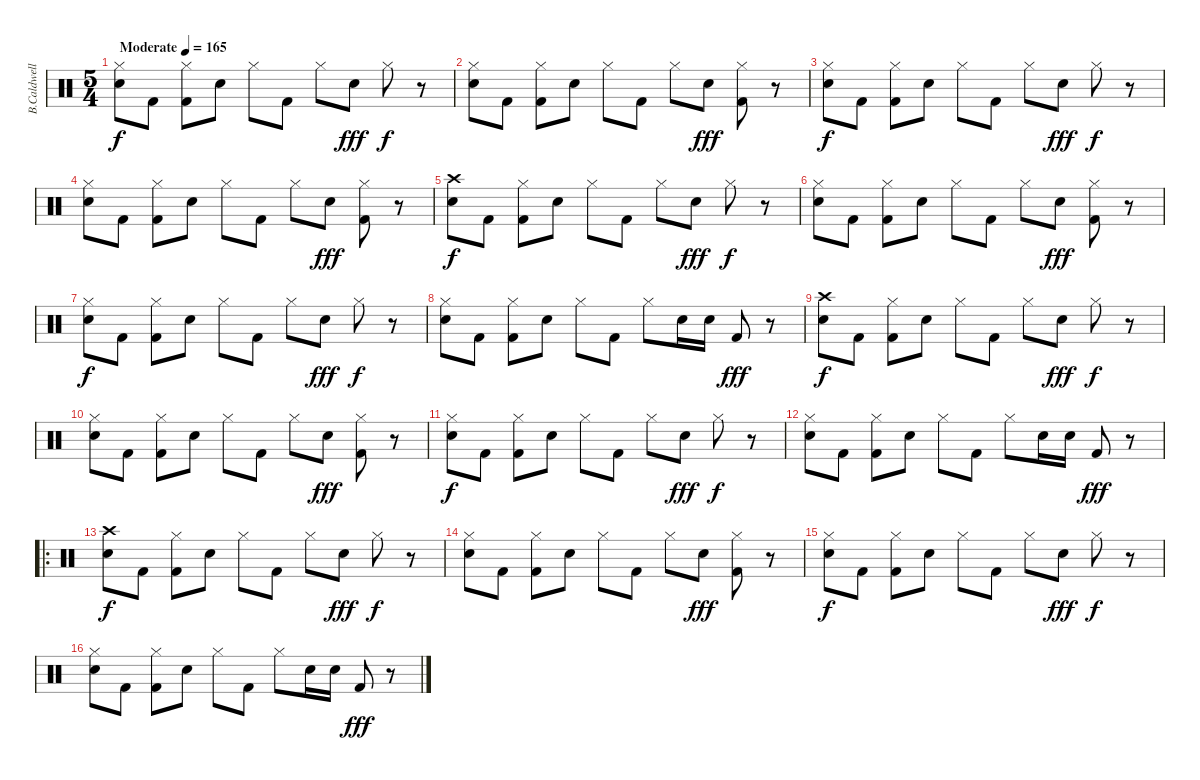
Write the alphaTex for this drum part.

\track ("B.Caldwell" "B.Caldwell") {instrument percussion}
\staff {score}
\articulation defaults
\ts (5 4)
\tempo (165 "Moderate")
\clef neutral
\ks c
("Hi-Hat (closed)" "Snare (hit) 2").8{dy f} "Kick (hit) 2".8 ("Hi-Hat (closed)" "Kick (hit) 2").8 "Snare (hit) 2".8 "Hi-Hat (closed)".8 "Kick (hit) 2".8 "Hi-Hat (closed)".8 "Snare (hit) 2".8{dy fff} "Hi-Hat (closed)".8{dy f} r.8 |
("Hi-Hat (closed)" "Snare (hit) 2").8 "Kick (hit) 2".8 ("Hi-Hat (closed)" "Kick (hit) 2").8 "Snare (hit) 2".8 "Hi-Hat (closed)".8 "Kick (hit) 2".8 "Hi-Hat (closed)".8 "Snare (hit) 2".8{dy fff} ("Hi-Hat (closed)" "Kick (hit) 2").8 r.8 |
("Hi-Hat (closed)" "Snare (hit) 2").8{dy f} "Kick (hit) 2".8 ("Hi-Hat (closed)" "Kick (hit) 2").8 "Snare (hit) 2".8 "Hi-Hat (closed)".8 "Kick (hit) 2".8 "Hi-Hat (closed)".8 "Snare (hit) 2".8{dy fff} "Hi-Hat (closed)".8{dy f} r.8 |
("Hi-Hat (closed)" "Snare (hit) 2").8 "Kick (hit) 2".8 ("Hi-Hat (closed)" "Kick (hit) 2").8 "Snare (hit) 2".8 "Hi-Hat (closed)".8 "Kick (hit) 2".8 "Hi-Hat (closed)".8 "Snare (hit) 2".8{dy fff} ("Hi-Hat (closed)" "Kick (hit) 2").8 r.8 |
("Crash high (hit)" "Snare (hit) 2").8{dy f} "Kick (hit) 2".8 ("Hi-Hat (closed)" "Kick (hit) 2").8 "Snare (hit) 2".8 "Hi-Hat (closed)".8 "Kick (hit) 2".8 "Hi-Hat (closed)".8 "Snare (hit) 2".8{dy fff} "Hi-Hat (closed)".8{dy f} r.8 |
("Hi-Hat (closed)" "Snare (hit) 2").8 "Kick (hit) 2".8 ("Hi-Hat (closed)" "Kick (hit) 2").8 "Snare (hit) 2".8 "Hi-Hat (closed)".8 "Kick (hit) 2".8 "Hi-Hat (closed)".8 "Snare (hit) 2".8{dy fff} ("Hi-Hat (closed)" "Kick (hit) 2").8 r.8 |
("Hi-Hat (closed)" "Snare (hit) 2").8{dy f} "Kick (hit) 2".8 ("Hi-Hat (closed)" "Kick (hit) 2").8 "Snare (hit) 2".8 "Hi-Hat (closed)".8 "Kick (hit) 2".8 "Hi-Hat (closed)".8 "Snare (hit) 2".8{dy fff} "Hi-Hat (closed)".8{dy f} r.8 |
("Hi-Hat (closed)" "Snare (hit) 2").8 "Kick (hit) 2".8 ("Hi-Hat (closed)" "Kick (hit) 2").8 "Snare (hit) 2".8 "Hi-Hat (closed)".8 "Kick (hit) 2".8 "Hi-Hat (closed)".8 "Snare (hit) 2".16 "Snare (hit) 2".16 "Kick (hit) 2".8{dy fff} r.8 |
("Crash high (hit)" "Snare (hit) 2").8{dy f} "Kick (hit) 2".8 ("Hi-Hat (closed)" "Kick (hit) 2").8 "Snare (hit) 2".8 "Hi-Hat (closed)".8 "Kick (hit) 2".8 "Hi-Hat (closed)".8 "Snare (hit) 2".8{dy fff} "Hi-Hat (closed)".8{dy f} r.8 |
("Hi-Hat (closed)" "Snare (hit) 2").8 "Kick (hit) 2".8 ("Hi-Hat (closed)" "Kick (hit) 2").8 "Snare (hit) 2".8 "Hi-Hat (closed)".8 "Kick (hit) 2".8 "Hi-Hat (closed)".8 "Snare (hit) 2".8{dy fff} ("Hi-Hat (closed)" "Kick (hit) 2").8 r.8 |
("Hi-Hat (closed)" "Snare (hit) 2").8{dy f} "Kick (hit) 2".8 ("Hi-Hat (closed)" "Kick (hit) 2").8 "Snare (hit) 2".8 "Hi-Hat (closed)".8 "Kick (hit) 2".8 "Hi-Hat (closed)".8 "Snare (hit) 2".8{dy fff} "Hi-Hat (closed)".8{dy f} r.8 |
("Hi-Hat (closed)" "Snare (hit) 2").8 "Kick (hit) 2".8 ("Hi-Hat (closed)" "Kick (hit) 2").8 "Snare (hit) 2".8 "Hi-Hat (closed)".8 "Kick (hit) 2".8 "Hi-Hat (closed)".8 "Snare (hit) 2".16 "Snare (hit) 2".16 "Kick (hit) 2".8{dy fff} r.8 |
\ro
("Crash high (hit)" "Snare (hit) 2").8{dy f} "Kick (hit) 2".8 ("Hi-Hat (closed)" "Kick (hit) 2").8 "Snare (hit) 2".8 "Hi-Hat (closed)".8 "Kick (hit) 2".8 "Hi-Hat (closed)".8 "Snare (hit) 2".8{dy fff} "Hi-Hat (closed)".8{dy f} r.8 |
("Hi-Hat (closed)" "Snare (hit) 2").8 "Kick (hit) 2".8 ("Hi-Hat (closed)" "Kick (hit) 2").8 "Snare (hit) 2".8 "Hi-Hat (closed)".8 "Kick (hit) 2".8 "Hi-Hat (closed)".8 "Snare (hit) 2".8{dy fff} ("Hi-Hat (closed)" "Kick (hit) 2").8 r.8 |
("Hi-Hat (closed)" "Snare (hit) 2").8{dy f} "Kick (hit) 2".8 ("Hi-Hat (closed)" "Kick (hit) 2").8 "Snare (hit) 2".8 "Hi-Hat (closed)".8 "Kick (hit) 2".8 "Hi-Hat (closed)".8 "Snare (hit) 2".8{dy fff} "Hi-Hat (closed)".8{dy f} r.8 |
("Hi-Hat (closed)" "Snare (hit) 2").8 "Kick (hit) 2".8 ("Hi-Hat (closed)" "Kick (hit) 2").8 "Snare (hit) 2".8 "Hi-Hat (closed)".8 "Kick (hit) 2".8 "Hi-Hat (closed)".8 "Snare (hit) 2".16 "Snare (hit) 2".16 "Kick (hit) 2".8{dy fff} r.8
